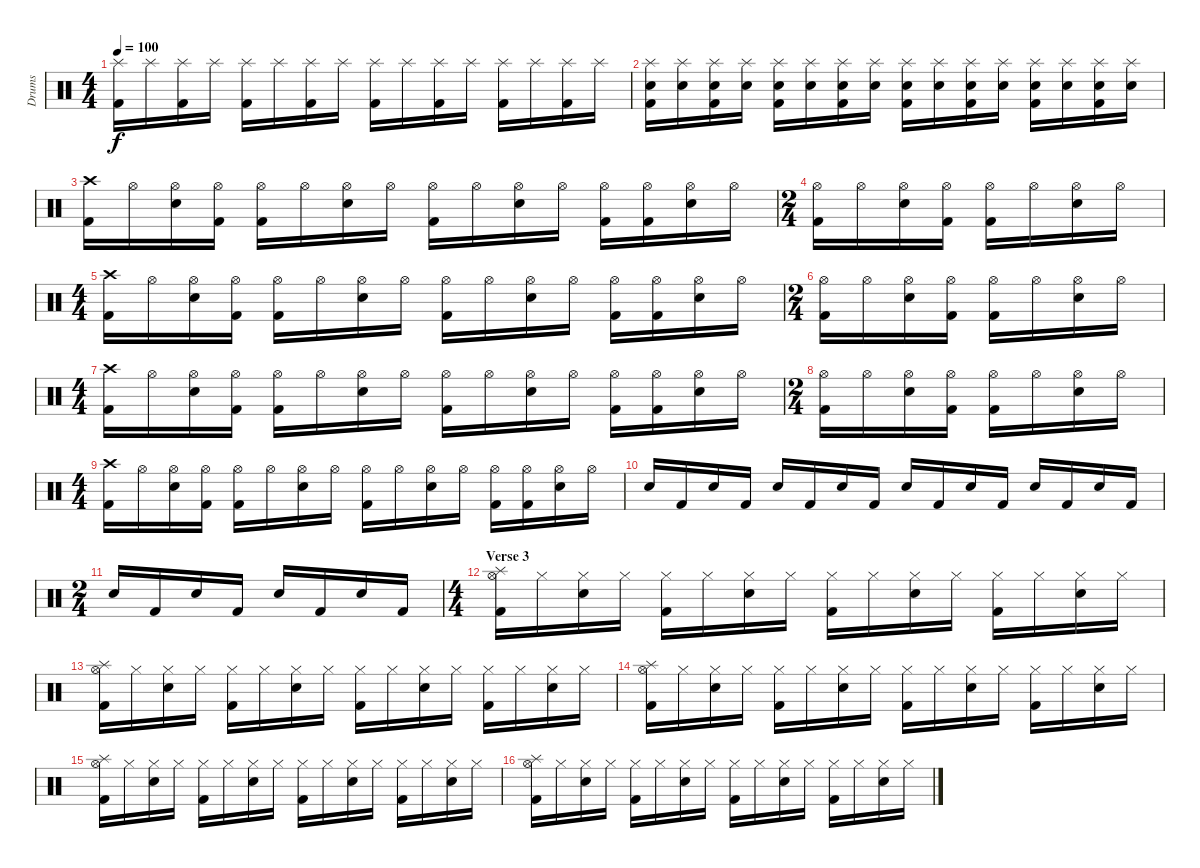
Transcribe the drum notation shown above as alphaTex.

\track ("Drums" "Drums") {instrument percussion}
\staff {score}
\articulation defaults
\ts (4 4)
\tempo 100
\clef neutral
\ks c
("Splash (hit)" "Kick (hit) 2").16{dy f} "Splash (hit)".16 ("Splash (hit)" "Kick (hit) 2").16 "Splash (hit)".16 ("Splash (hit)" "Kick (hit) 2").16 "Splash (hit)".16 ("Splash (hit)" "Kick (hit) 2").16 "Splash (hit)".16 ("Splash (hit)" "Kick (hit) 2").16 "Splash (hit)".16 ("Splash (hit)" "Kick (hit) 2").16 "Splash (hit)".16 ("Splash (hit)" "Kick (hit) 2").16 "Splash (hit)".16 ("Splash (hit)" "Kick (hit) 2").16 "Splash (hit)".16 |
("Splash (hit)" "Snare (hit) 2" "Kick (hit) 2").16 ("Splash (hit)" "Snare (hit) 2").16 ("Splash (hit)" "Snare (hit) 2" "Kick (hit) 2").16 ("Splash (hit)" "Snare (hit) 2").16 ("Splash (hit)" "Snare (hit) 2" "Kick (hit) 2").16 ("Splash (hit)" "Snare (hit) 2").16 ("Splash (hit)" "Snare (hit) 2" "Kick (hit) 2").16 ("Splash (hit)" "Snare (hit) 2").16 ("Splash (hit)" "Snare (hit) 2" "Kick (hit) 2").16 ("Splash (hit)" "Snare (hit) 2").16 ("Splash (hit)" "Snare (hit) 2" "Kick (hit) 2").16 ("Splash (hit)" "Snare (hit) 2").16 ("Splash (hit)" "Snare (hit) 2" "Kick (hit) 2").16 ("Splash (hit)" "Snare (hit) 2").16 ("Splash (hit)" "Snare (hit) 2" "Kick (hit) 2").16 ("Splash (hit)" "Snare (hit) 2").16 |
("Crash high (hit)" "Kick (hit) 2").16 "Hi-Hat (open)".16 ("Hi-Hat (open)" "Snare (hit) 2").16 ("Hi-Hat (open)" "Kick (hit) 2").16 ("Hi-Hat (open)" "Kick (hit) 2").16 "Hi-Hat (open)".16 ("Hi-Hat (open)" "Snare (hit) 2").16 "Hi-Hat (open)".16 ("Hi-Hat (open)" "Kick (hit) 2").16 "Hi-Hat (open)".16 ("Hi-Hat (open)" "Snare (hit) 2").16 "Hi-Hat (open)".16 ("Hi-Hat (open)" "Kick (hit) 2").16 ("Hi-Hat (open)" "Kick (hit) 2").16 ("Hi-Hat (open)" "Snare (hit) 2").16 "Hi-Hat (open)".16 |
\ts (2 4)
("Hi-Hat (open)" "Kick (hit) 2").16 "Hi-Hat (open)".16 ("Hi-Hat (open)" "Snare (hit) 2").16 ("Hi-Hat (open)" "Kick (hit) 2").16 ("Hi-Hat (open)" "Kick (hit) 2").16 "Hi-Hat (open)".16 ("Hi-Hat (open)" "Snare (hit) 2").16 "Hi-Hat (open)".16 |
\ts (4 4)
("Crash high (hit)" "Kick (hit) 2").16 "Hi-Hat (open)".16 ("Hi-Hat (open)" "Snare (hit) 2").16 ("Hi-Hat (open)" "Kick (hit) 2").16 ("Hi-Hat (open)" "Kick (hit) 2").16 "Hi-Hat (open)".16 ("Hi-Hat (open)" "Snare (hit) 2").16 "Hi-Hat (open)".16 ("Hi-Hat (open)" "Kick (hit) 2").16 "Hi-Hat (open)".16 ("Hi-Hat (open)" "Snare (hit) 2").16 "Hi-Hat (open)".16 ("Hi-Hat (open)" "Kick (hit) 2").16 ("Hi-Hat (open)" "Kick (hit) 2").16 ("Hi-Hat (open)" "Snare (hit) 2").16 "Hi-Hat (open)".16 |
\ts (2 4)
("Hi-Hat (open)" "Kick (hit) 2").16 "Hi-Hat (open)".16 ("Hi-Hat (open)" "Snare (hit) 2").16 ("Hi-Hat (open)" "Kick (hit) 2").16 ("Hi-Hat (open)" "Kick (hit) 2").16 "Hi-Hat (open)".16 ("Hi-Hat (open)" "Snare (hit) 2").16 "Hi-Hat (open)".16 |
\ts (4 4)
("Crash high (hit)" "Kick (hit) 2").16 "Hi-Hat (open)".16 ("Hi-Hat (open)" "Snare (hit) 2").16 ("Hi-Hat (open)" "Kick (hit) 2").16 ("Hi-Hat (open)" "Kick (hit) 2").16 "Hi-Hat (open)".16 ("Hi-Hat (open)" "Snare (hit) 2").16 "Hi-Hat (open)".16 ("Hi-Hat (open)" "Kick (hit) 2").16 "Hi-Hat (open)".16 ("Hi-Hat (open)" "Snare (hit) 2").16 "Hi-Hat (open)".16 ("Hi-Hat (open)" "Kick (hit) 2").16 ("Hi-Hat (open)" "Kick (hit) 2").16 ("Hi-Hat (open)" "Snare (hit) 2").16 "Hi-Hat (open)".16 |
\ts (2 4)
("Hi-Hat (open)" "Kick (hit) 2").16 "Hi-Hat (open)".16 ("Hi-Hat (open)" "Snare (hit) 2").16 ("Hi-Hat (open)" "Kick (hit) 2").16 ("Hi-Hat (open)" "Kick (hit) 2").16 "Hi-Hat (open)".16 ("Hi-Hat (open)" "Snare (hit) 2").16 "Hi-Hat (open)".16 |
\ts (4 4)
("Crash high (hit)" "Kick (hit) 2").16 "Hi-Hat (open)".16 ("Hi-Hat (open)" "Snare (hit) 2").16 ("Hi-Hat (open)" "Kick (hit) 2").16 ("Hi-Hat (open)" "Kick (hit) 2").16 "Hi-Hat (open)".16 ("Hi-Hat (open)" "Snare (hit) 2").16 "Hi-Hat (open)".16 ("Hi-Hat (open)" "Kick (hit) 2").16 "Hi-Hat (open)".16 ("Hi-Hat (open)" "Snare (hit) 2").16 "Hi-Hat (open)".16 ("Hi-Hat (open)" "Kick (hit) 2").16 ("Hi-Hat (open)" "Kick (hit) 2").16 ("Hi-Hat (open)" "Snare (hit) 2").16 "Hi-Hat (open)".16 |
"Snare (hit) 2".16 "Kick (hit) 2".16 "Snare (hit) 2".16 "Kick (hit) 2".16 "Snare (hit) 2".16 "Kick (hit) 2".16 "Snare (hit) 2".16 "Kick (hit) 2".16 "Snare (hit) 2".16 "Kick (hit) 2".16 "Snare (hit) 2".16 "Kick (hit) 2".16 "Snare (hit) 2".16 "Kick (hit) 2".16 "Snare (hit) 2".16 "Kick (hit) 2".16 |
\ts (2 4)
"Snare (hit) 2".16 "Kick (hit) 2".16 "Snare (hit) 2".16 "Kick (hit) 2".16 "Snare (hit) 2".16 "Kick (hit) 2".16 "Snare (hit) 2".16 "Kick (hit) 2".16 |
\ts (4 4)
\section ("" "Verse 3")
("Hi-Hat (open)" "Splash (hit)" "Kick (hit) 2").16 "Hi-Hat (closed)".16 ("Hi-Hat (closed)" "Snare (hit) 2").16 "Hi-Hat (closed)".16 ("Hi-Hat (closed)" "Kick (hit) 2").16 "Hi-Hat (closed)".16 ("Hi-Hat (closed)" "Snare (hit) 2").16 "Hi-Hat (closed)".16 ("Hi-Hat (closed)" "Kick (hit) 2").16 "Hi-Hat (closed)".16 ("Hi-Hat (closed)" "Snare (hit) 2").16 "Hi-Hat (closed)".16 ("Hi-Hat (closed)" "Kick (hit) 2").16 "Hi-Hat (closed)".16 ("Hi-Hat (closed)" "Snare (hit) 2").16 "Hi-Hat (closed)".16 |
("Hi-Hat (open)" "Splash (hit)" "Kick (hit) 2").16 "Hi-Hat (closed)".16 ("Hi-Hat (closed)" "Snare (hit) 2").16 "Hi-Hat (closed)".16 ("Hi-Hat (closed)" "Kick (hit) 2").16 "Hi-Hat (closed)".16 ("Hi-Hat (closed)" "Snare (hit) 2").16 "Hi-Hat (closed)".16 ("Hi-Hat (closed)" "Kick (hit) 2").16 "Hi-Hat (closed)".16 ("Hi-Hat (closed)" "Snare (hit) 2").16 "Hi-Hat (closed)".16 ("Hi-Hat (closed)" "Kick (hit) 2").16 "Hi-Hat (closed)".16 ("Hi-Hat (closed)" "Snare (hit) 2").16 "Hi-Hat (closed)".16 |
("Hi-Hat (open)" "Splash (hit)" "Kick (hit) 2").16 "Hi-Hat (closed)".16 ("Hi-Hat (closed)" "Snare (hit) 2").16 "Hi-Hat (closed)".16 ("Hi-Hat (closed)" "Kick (hit) 2").16 "Hi-Hat (closed)".16 ("Hi-Hat (closed)" "Snare (hit) 2").16 "Hi-Hat (closed)".16 ("Hi-Hat (closed)" "Kick (hit) 2").16 "Hi-Hat (closed)".16 ("Hi-Hat (closed)" "Snare (hit) 2").16 "Hi-Hat (closed)".16 ("Hi-Hat (closed)" "Kick (hit) 2").16 "Hi-Hat (closed)".16 ("Hi-Hat (closed)" "Snare (hit) 2").16 "Hi-Hat (closed)".16 |
("Hi-Hat (open)" "Splash (hit)" "Kick (hit) 2").16 "Hi-Hat (closed)".16 ("Hi-Hat (closed)" "Snare (hit) 2").16 "Hi-Hat (closed)".16 ("Hi-Hat (closed)" "Kick (hit) 2").16 "Hi-Hat (closed)".16 ("Hi-Hat (closed)" "Snare (hit) 2").16 "Hi-Hat (closed)".16 ("Hi-Hat (closed)" "Kick (hit) 2").16 "Hi-Hat (closed)".16 ("Hi-Hat (closed)" "Snare (hit) 2").16 "Hi-Hat (closed)".16 ("Hi-Hat (closed)" "Kick (hit) 2").16 "Hi-Hat (closed)".16 ("Hi-Hat (closed)" "Snare (hit) 2").16 "Hi-Hat (closed)".16 |
("Hi-Hat (open)" "Splash (hit)" "Kick (hit) 2").16 "Hi-Hat (closed)".16 ("Hi-Hat (closed)" "Snare (hit) 2").16 "Hi-Hat (closed)".16 ("Hi-Hat (closed)" "Kick (hit) 2").16 "Hi-Hat (closed)".16 ("Hi-Hat (closed)" "Snare (hit) 2").16 "Hi-Hat (closed)".16 ("Hi-Hat (closed)" "Kick (hit) 2").16 "Hi-Hat (closed)".16 ("Hi-Hat (closed)" "Snare (hit) 2").16 "Hi-Hat (closed)".16 ("Hi-Hat (closed)" "Kick (hit) 2").16 "Hi-Hat (closed)".16 ("Hi-Hat (closed)" "Snare (hit) 2").16 "Hi-Hat (closed)".16
